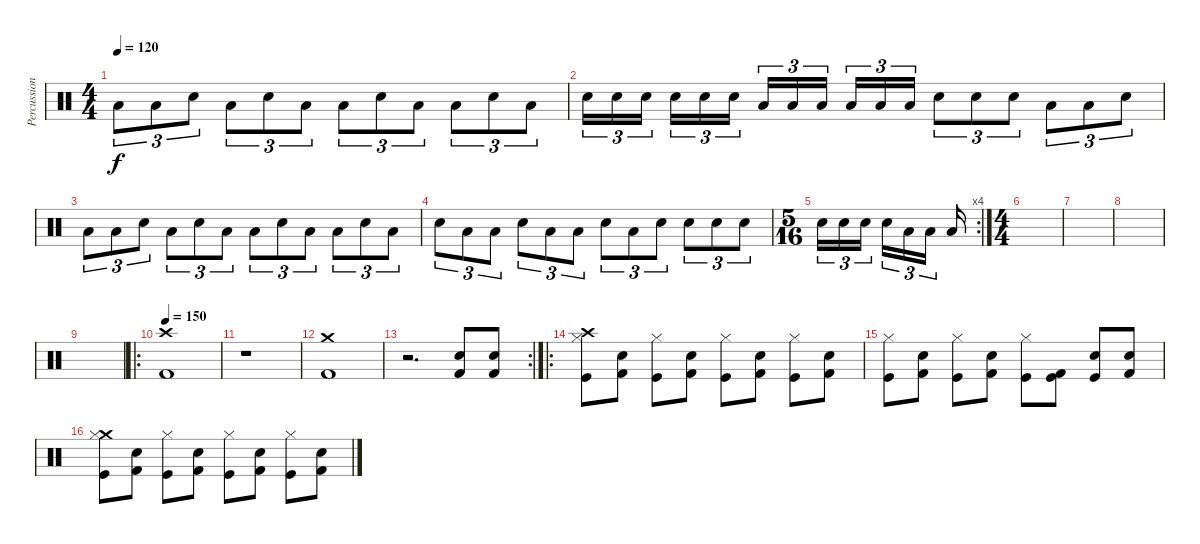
\track ("Percussion" "Percussion") {instrument percussion}
\staff {score}
\articulation defaults
\ts (4 4)
\tempo 120
\clef neutral
\ks c "Low Tom (hit)".8{tu (3 2) dy f} "Low Tom (hit)".8{tu (3 2)} "Electric Snare (hit)".8{tu (3 2)} "Low Tom (hit)".8{tu (3 2)} "Electric Snare (hit)".8{tu (3 2)} "Low Tom (hit)".8{tu (3 2)} "Low Tom (hit)".8{tu (3 2)} "Electric Snare (hit)".8{tu (3 2)} "Low Tom (hit)".8{tu (3 2)} "Low Tom (hit)".8{tu (3 2)} "Electric Snare (hit)".8{tu (3 2)} "Low Tom (hit)".8{tu (3 2)}
|
"Electric Snare (hit)".16{tu (3 2)} "Electric Snare (hit)".16{tu (3 2)} "Electric Snare (hit)".16{tu (3 2)} "Electric Snare (hit)".16{tu (3 2)} "Electric Snare (hit)".16{tu (3 2)} "Electric Snare (hit)".16{tu (3 2)} "Low Tom (hit)".16{tu (3 2)} "Low Tom (hit)".16{tu (3 2)} "Low Tom (hit)".16{tu (3 2)} "Low Tom (hit)".16{tu (3 2)} "Low Tom (hit)".16{tu (3 2)} "Low Tom (hit)".16{tu (3 2)} "Electric Snare (hit)".8{tu (3 2)} "Electric Snare (hit)".8{tu (3 2)} "Electric Snare (hit)".8{tu (3 2)} "Low Tom (hit)".8{tu (3 2)} "Low Tom (hit)".8{tu (3 2)} "Electric Snare (hit)".8{tu (3 2)} |
"Low Tom (hit)".8{tu (3 2)} "Low Tom (hit)".8{tu (3 2)} "Electric Snare (hit)".8{tu (3 2)} "Low Tom (hit)".8{tu (3 2)} "Electric Snare (hit)".8{tu (3 2)} "Low Tom (hit)".8{tu (3 2)} "Low Tom (hit)".8{tu (3 2)} "Electric Snare (hit)".8{tu (3 2)} "Low Tom (hit)".8{tu (3 2)} "Low Tom (hit)".8{tu (3 2)} "Electric Snare (hit)".8{tu (3 2)} "Low Tom (hit)".8{tu (3 2)} |
"Electric Snare (hit)".8{tu (3 2)} "Low Tom (hit)".8{tu (3 2)} "Low Tom (hit)".8{tu (3 2)} "Electric Snare (hit)".8{tu (3 2)} "Low Tom (hit)".8{tu (3 2)} "Low Tom (hit)".8{tu (3 2)} "Electric Snare (hit)".8{tu (3 2)} "Low Tom (hit)".8{tu (3 2)} "Electric Snare (hit)".8{tu (3 2)} "Electric Snare (hit)".8{tu (3 2)} "Electric Snare (hit)".8{tu (3 2)} "Electric Snare (hit)".8{tu (3 2)} |
\rc 4
\ts (5 16)
"Electric Snare (hit)".16{tu (3 2)} "Electric Snare (hit)".16{tu (3 2)} "Electric Snare (hit)".16{tu (3 2)} "Electric Snare (hit)".16{tu (3 2)} "Low Tom (hit)".16{tu (3 2)} "Low Tom (hit)".16{tu (3 2)} "Low Tom (hit)".16 |
\ts (4 4)
|
|
|
|
\ro
\tempo 150
("Kick (hit) 2" "Crash high (hit)").1 |
r.1 |
("Crash medium (hit)" "Kick (hit) 2").1 |
\rc 2
r.2{d} ("Kick (hit) 2" "Snare (hit) 2").8 ("Kick (hit) 2" "Snare (hit) 2").8 |
\ro
("Crash high (hit)" "Kick (hit)" "Hi-Hat (closed)").8 ("Kick (hit) 2" "Snare (hit) 2").8 ("Kick (hit)" "Hi-Hat (closed)").8 ("Kick (hit) 2" "Snare (hit) 2").8 ("Kick (hit)" "Hi-Hat (closed)").8 ("Kick (hit) 2" "Snare (hit) 2").8 ("Kick (hit)" "Hi-Hat (closed)").8 ("Kick (hit) 2" "Snare (hit) 2").8 |
("Kick (hit)" "Hi-Hat (closed)").8 ("Kick (hit) 2" "Snare (hit) 2").8 ("Kick (hit)" "Hi-Hat (closed)").8 ("Kick (hit) 2" "Snare (hit) 2").8 ("Kick (hit)" "Hi-Hat (closed)").8 ("Kick (hit)" "Kick (hit) 2").8 ("Kick (hit)" "Snare (hit) 2").8 ("Kick (hit) 2" "Snare (hit) 2").8 |
("Crash medium (hit)" "Kick (hit)" "Hi-Hat (closed)").8 ("Kick (hit) 2" "Snare (hit) 2").8 ("Kick (hit)" "Hi-Hat (closed)").8 ("Kick (hit) 2" "Snare (hit) 2").8 ("Kick (hit)" "Hi-Hat (closed)").8 ("Kick (hit) 2" "Snare (hit) 2").8 ("Kick (hit)" "Hi-Hat (closed)").8 ("Kick (hit) 2" "Snare (hit) 2").8
